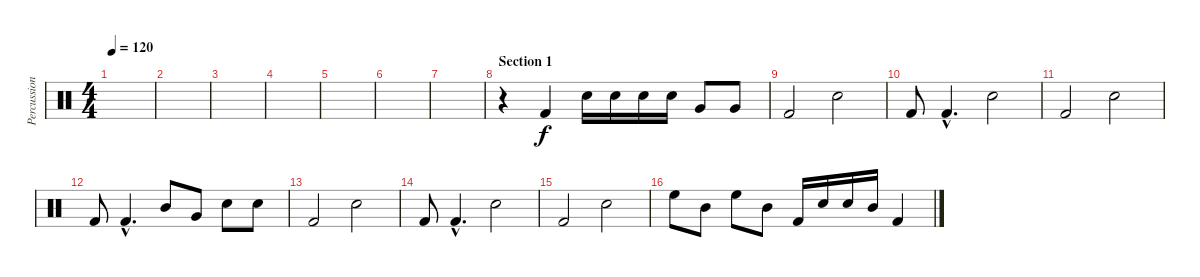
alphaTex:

\track ("Percussions" "Percussion") {instrument percussion}
\staff {score}
\articulation defaults
\ts (4 4)
\tempo 120
\clef neutral
\ks c
|
|
|
|
|
|
|
\section ("" "Section 1")
r.4 "Kick (hit) 2".4 "Electric Snare (hit)".16 "Electric Snare (hit)".16 "Electric Snare (hit)".16 "Electric Snare (hit)".16 "Very Low Tom (hit)".8 "Very Low Tom (hit)".8 |
"Kick (hit) 2".2 "Snare (hit) 2".2 |
"Kick (hit) 2".8 "Kick (hit) 2"{hac}.4{d} "Electric Snare (hit)".2 |
"Kick (hit) 2".2 "Snare (hit) 2".2 |
"Kick (hit) 2".8 "Kick (hit) 2"{hac}.4{d} "Mid Tom (hit)".8 "Very Low Tom (hit)".8 "Electric Snare (hit)".8 "Electric Snare (hit)".8 |
"Kick (hit) 2".2 "Snare (hit) 2".2 |
"Kick (hit) 2".8 "Kick (hit) 2"{hac}.4{d} "Electric Snare (hit)".2 |
"Kick (hit) 2".2 "Snare (hit) 2".2 |
"High Floor Tom (hit)".8 "Mid Tom (hit)".8 "High Floor Tom (hit)".8 "Mid Tom (hit)".8 "Kick (hit) 2".16 "Electric Snare (hit)".16 "Electric Snare (hit)".16 "Mid Tom (hit)".16 "Kick (hit) 2".4
